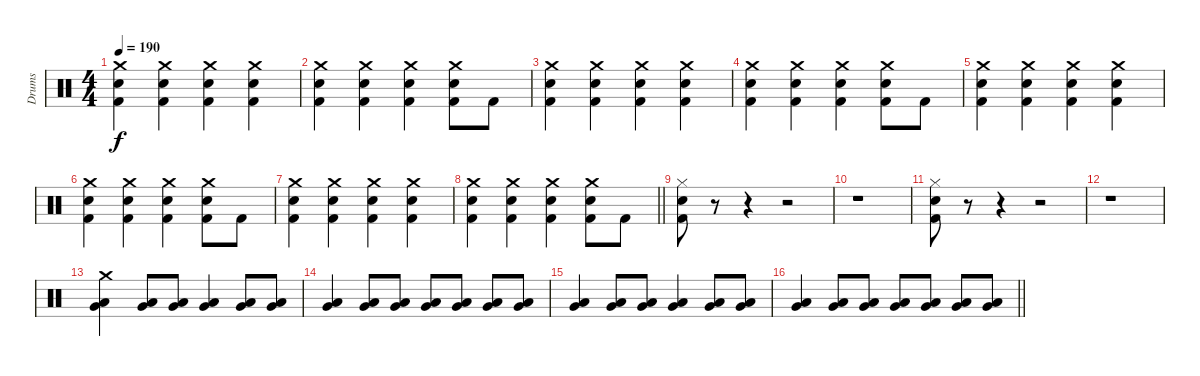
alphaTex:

\track ("Drums" "Drums") {instrument percussion}
\staff {score}
\articulation defaults
\ts (4 4)
\tempo 190
\clef neutral
\ks c
("Crash medium (hit)" "Electric Snare (hit)" "Kick (hit) 2").4{dy f} ("Crash medium (hit)" "Electric Snare (hit)" "Kick (hit) 2").4 ("Crash medium (hit)" "Electric Snare (hit)" "Kick (hit) 2").4 ("Crash medium (hit)" "Electric Snare (hit)" "Kick (hit) 2").4 |
("Crash medium (hit)" "Electric Snare (hit)" "Kick (hit) 2").4 ("Crash medium (hit)" "Electric Snare (hit)" "Kick (hit) 2").4 ("Crash medium (hit)" "Electric Snare (hit)" "Kick (hit) 2").4 ("Crash medium (hit)" "Electric Snare (hit)" "Kick (hit) 2").8 "Kick (hit) 2".8 |
("Crash medium (hit)" "Electric Snare (hit)" "Kick (hit) 2").4 ("Crash medium (hit)" "Electric Snare (hit)" "Kick (hit) 2").4 ("Crash medium (hit)" "Electric Snare (hit)" "Kick (hit) 2").4 ("Crash medium (hit)" "Electric Snare (hit)" "Kick (hit) 2").4 |
("Crash medium (hit)" "Electric Snare (hit)" "Kick (hit) 2").4 ("Crash medium (hit)" "Electric Snare (hit)" "Kick (hit) 2").4 ("Crash medium (hit)" "Electric Snare (hit)" "Kick (hit) 2").4 ("Crash medium (hit)" "Electric Snare (hit)" "Kick (hit) 2").8 "Kick (hit) 2".8 |
("Crash medium (hit)" "Electric Snare (hit)" "Kick (hit) 2").4 ("Crash medium (hit)" "Electric Snare (hit)" "Kick (hit) 2").4 ("Crash medium (hit)" "Electric Snare (hit)" "Kick (hit) 2").4 ("Crash medium (hit)" "Electric Snare (hit)" "Kick (hit) 2").4 |
("Crash medium (hit)" "Electric Snare (hit)" "Kick (hit) 2").4 ("Crash medium (hit)" "Electric Snare (hit)" "Kick (hit) 2").4 ("Crash medium (hit)" "Electric Snare (hit)" "Kick (hit) 2").4 ("Crash medium (hit)" "Electric Snare (hit)" "Kick (hit) 2").8 "Kick (hit) 2".8 |
("Crash medium (hit)" "Electric Snare (hit)" "Kick (hit) 2").4 ("Crash medium (hit)" "Electric Snare (hit)" "Kick (hit) 2").4 ("Crash medium (hit)" "Electric Snare (hit)" "Kick (hit) 2").4 ("Crash medium (hit)" "Electric Snare (hit)" "Kick (hit) 2").4 |
\barLineRight lightlight
("Crash medium (hit)" "Electric Snare (hit)" "Kick (hit) 2").4 ("Crash medium (hit)" "Electric Snare (hit)" "Kick (hit) 2").4 ("Crash medium (hit)" "Electric Snare (hit)" "Kick (hit) 2").4 ("Crash medium (hit)" "Electric Snare (hit)" "Kick (hit) 2").8 "Kick (hit) 2".8 |
("Hi-Hat (closed)" "Electric Snare (hit)" "Kick (hit) 2").8 r.8 r.4 r.2 |
r.1 |
("Hi-Hat (closed)" "Electric Snare (hit)" "Kick (hit) 2").8 r.8 r.4 r.2 |
r.1 |
("Crash medium (hit)" "Low Tom (hit)" "Very Low Tom (hit)").4 ("Low Tom (hit)" "Very Low Tom (hit)").8 ("Low Tom (hit)" "Very Low Tom (hit)").8 ("Low Tom (hit)" "Very Low Tom (hit)").4 ("Low Tom (hit)" "Very Low Tom (hit)").8 ("Low Tom (hit)" "Very Low Tom (hit)").8 |
("Low Tom (hit)" "Very Low Tom (hit)").4 ("Low Tom (hit)" "Very Low Tom (hit)").8 ("Low Tom (hit)" "Very Low Tom (hit)").8 ("Low Tom (hit)" "Very Low Tom (hit)").8 ("Low Tom (hit)" "Very Low Tom (hit)").8 ("Low Tom (hit)" "Very Low Tom (hit)").8 ("Low Tom (hit)" "Very Low Tom (hit)").8 |
("Low Tom (hit)" "Very Low Tom (hit)").4 ("Low Tom (hit)" "Very Low Tom (hit)").8 ("Low Tom (hit)" "Very Low Tom (hit)").8 ("Low Tom (hit)" "Very Low Tom (hit)").4 ("Low Tom (hit)" "Very Low Tom (hit)").8 ("Low Tom (hit)" "Very Low Tom (hit)").8 |
\barLineRight lightlight
("Low Tom (hit)" "Very Low Tom (hit)").4 ("Low Tom (hit)" "Very Low Tom (hit)").8 ("Low Tom (hit)" "Very Low Tom (hit)").8 ("Low Tom (hit)" "Very Low Tom (hit)").8 ("Low Tom (hit)" "Very Low Tom (hit)").8 ("Low Tom (hit)" "Very Low Tom (hit)").8 ("Low Tom (hit)" "Very Low Tom (hit)").8
